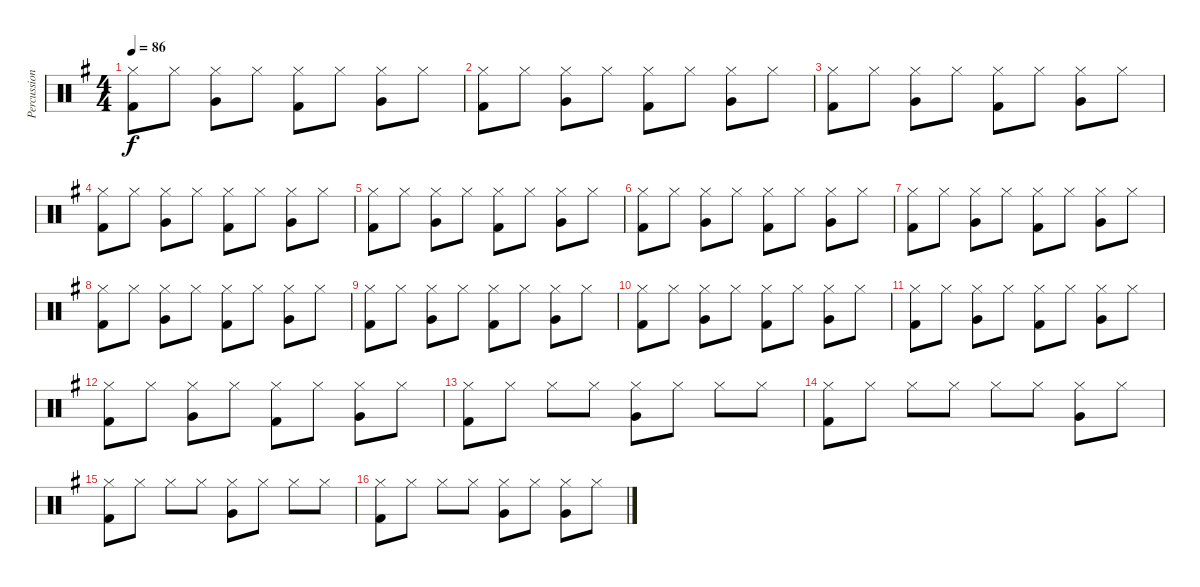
\track ("Percussions" "Percussion") {instrument percussion}
\staff {score}
\articulation defaults
\ts (4 4)
\tempo 86
\clef neutral
\ks g
("Hi-Hat (closed)" "Kick (hit) 2").8{dy f} "Hi-Hat (closed)".8 ("Hi-Hat (closed)" "Very Low Tom (hit)").8 "Hi-Hat (closed)".8 ("Hi-Hat (closed)" "Kick (hit) 2").8 "Hi-Hat (closed)".8 ("Hi-Hat (closed)" "Very Low Tom (hit)").8 "Hi-Hat (closed)".8 |
("Hi-Hat (closed)" "Kick (hit) 2").8 "Hi-Hat (closed)".8 ("Hi-Hat (closed)" "Very Low Tom (hit)").8 "Hi-Hat (closed)".8 ("Hi-Hat (closed)" "Kick (hit) 2").8 "Hi-Hat (closed)".8 ("Hi-Hat (closed)" "Very Low Tom (hit)").8 "Hi-Hat (closed)".8 |
("Hi-Hat (closed)" "Kick (hit) 2").8 "Hi-Hat (closed)".8 ("Hi-Hat (closed)" "Very Low Tom (hit)").8 "Hi-Hat (closed)".8 ("Hi-Hat (closed)" "Kick (hit) 2").8 "Hi-Hat (closed)".8 ("Hi-Hat (closed)" "Very Low Tom (hit)").8 "Hi-Hat (closed)".8 |
("Hi-Hat (closed)" "Kick (hit) 2").8 "Hi-Hat (closed)".8 ("Hi-Hat (closed)" "Very Low Tom (hit)").8 "Hi-Hat (closed)".8 ("Hi-Hat (closed)" "Kick (hit) 2").8 "Hi-Hat (closed)".8 ("Hi-Hat (closed)" "Very Low Tom (hit)").8 "Hi-Hat (closed)".8 |
("Hi-Hat (closed)" "Kick (hit) 2").8 "Hi-Hat (closed)".8 ("Hi-Hat (closed)" "Very Low Tom (hit)").8 "Hi-Hat (closed)".8 ("Hi-Hat (closed)" "Kick (hit) 2").8 "Hi-Hat (closed)".8 ("Hi-Hat (closed)" "Very Low Tom (hit)").8 "Hi-Hat (closed)".8 |
("Hi-Hat (closed)" "Kick (hit) 2").8 "Hi-Hat (closed)".8 ("Hi-Hat (closed)" "Very Low Tom (hit)").8 "Hi-Hat (closed)".8 ("Hi-Hat (closed)" "Kick (hit) 2").8 "Hi-Hat (closed)".8 ("Hi-Hat (closed)" "Very Low Tom (hit)").8 "Hi-Hat (closed)".8 |
("Hi-Hat (closed)" "Kick (hit) 2").8 "Hi-Hat (closed)".8 ("Hi-Hat (closed)" "Very Low Tom (hit)").8 "Hi-Hat (closed)".8 ("Hi-Hat (closed)" "Kick (hit) 2").8 "Hi-Hat (closed)".8 ("Hi-Hat (closed)" "Very Low Tom (hit)").8 "Hi-Hat (closed)".8 |
("Hi-Hat (closed)" "Kick (hit) 2").8 "Hi-Hat (closed)".8 ("Hi-Hat (closed)" "Very Low Tom (hit)").8 "Hi-Hat (closed)".8 ("Hi-Hat (closed)" "Kick (hit) 2").8 "Hi-Hat (closed)".8 ("Hi-Hat (closed)" "Very Low Tom (hit)").8 "Hi-Hat (closed)".8 |
("Hi-Hat (closed)" "Kick (hit) 2").8 "Hi-Hat (closed)".8 ("Hi-Hat (closed)" "Very Low Tom (hit)").8 "Hi-Hat (closed)".8 ("Hi-Hat (closed)" "Kick (hit) 2").8 "Hi-Hat (closed)".8 ("Hi-Hat (closed)" "Very Low Tom (hit)").8 "Hi-Hat (closed)".8 |
("Hi-Hat (closed)" "Kick (hit) 2").8 "Hi-Hat (closed)".8 ("Hi-Hat (closed)" "Very Low Tom (hit)").8 "Hi-Hat (closed)".8 ("Hi-Hat (closed)" "Kick (hit) 2").8 "Hi-Hat (closed)".8 ("Hi-Hat (closed)" "Very Low Tom (hit)").8 "Hi-Hat (closed)".8 |
("Hi-Hat (closed)" "Kick (hit) 2").8 "Hi-Hat (closed)".8 ("Hi-Hat (closed)" "Very Low Tom (hit)").8 "Hi-Hat (closed)".8 ("Hi-Hat (closed)" "Kick (hit) 2").8 "Hi-Hat (closed)".8 ("Hi-Hat (closed)" "Very Low Tom (hit)").8 "Hi-Hat (closed)".8 |
("Hi-Hat (closed)" "Kick (hit) 2").8 "Hi-Hat (closed)".8 ("Hi-Hat (closed)" "Very Low Tom (hit)").8 "Hi-Hat (closed)".8 ("Hi-Hat (closed)" "Kick (hit) 2").8 "Hi-Hat (closed)".8 ("Hi-Hat (closed)" "Very Low Tom (hit)").8 "Hi-Hat (closed)".8 |
("Hi-Hat (closed)" "Kick (hit) 2").8 "Hi-Hat (closed)".8 "Hi-Hat (closed)".8 "Hi-Hat (closed)".8 ("Hi-Hat (closed)" "Very Low Tom (hit)").8 "Hi-Hat (closed)".8 "Hi-Hat (closed)".8 "Hi-Hat (closed)".8 |
("Hi-Hat (closed)" "Kick (hit) 2").8 "Hi-Hat (closed)".8 "Hi-Hat (closed)".8 "Hi-Hat (closed)".8 "Hi-Hat (closed)".8 "Hi-Hat (closed)".8 ("Hi-Hat (closed)" "Very Low Tom (hit)").8 "Hi-Hat (closed)".8 |
("Hi-Hat (closed)" "Kick (hit) 2").8 "Hi-Hat (closed)".8 "Hi-Hat (closed)".8 "Hi-Hat (closed)".8 ("Hi-Hat (closed)" "Very Low Tom (hit)").8 "Hi-Hat (closed)".8 "Hi-Hat (closed)".8 "Hi-Hat (closed)".8 |
("Hi-Hat (closed)" "Kick (hit) 2").8 "Hi-Hat (closed)".8 "Hi-Hat (closed)".8 "Hi-Hat (closed)".8 ("Hi-Hat (closed)" "Very Low Tom (hit)").8 "Hi-Hat (closed)".8 ("Hi-Hat (closed)" "Very Low Tom (hit)").8 "Hi-Hat (closed)".8
